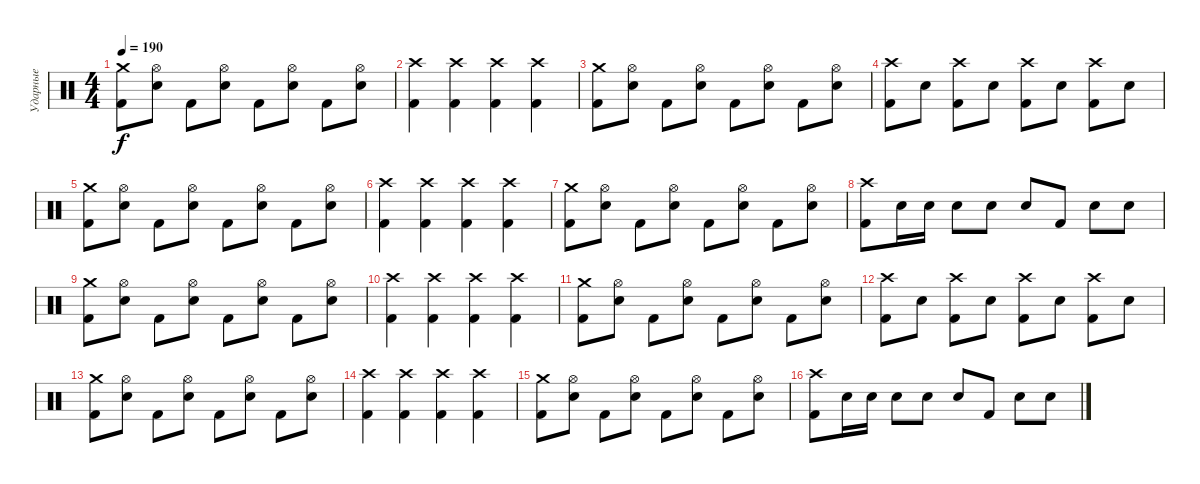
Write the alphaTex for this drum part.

\track ("Ударные" "Ударные") {instrument percussion}
\staff {score}
\articulation defaults
\ts (4 4)
\tempo 190
\clef neutral
\ks c
("Crash medium (hit)" "Kick (hit) 2").8{dy f} ("Hi-Hat (open)" "Electric Snare (hit)").8 "Kick (hit) 2".8 ("Hi-Hat (open)" "Electric Snare (hit)").8 "Kick (hit) 2".8 ("Hi-Hat (open)" "Electric Snare (hit)").8 "Kick (hit) 2".8 ("Hi-Hat (open)" "Electric Snare (hit)").8 |
("Crash high (hit)" "Kick (hit) 2").4 ("Crash high (hit)" "Kick (hit) 2").4 ("Crash high (hit)" "Kick (hit) 2").4 ("Crash high (hit)" "Kick (hit) 2").4 |
("Crash medium (hit)" "Kick (hit) 2").8 ("Hi-Hat (open)" "Electric Snare (hit)").8 "Kick (hit) 2".8 ("Hi-Hat (open)" "Electric Snare (hit)").8 "Kick (hit) 2".8 ("Hi-Hat (open)" "Electric Snare (hit)").8 "Kick (hit) 2".8 ("Hi-Hat (open)" "Electric Snare (hit)").8 |
("Crash high (hit)" "Kick (hit) 2").8 "Electric Snare (hit)".8 ("Crash high (hit)" "Kick (hit) 2").8 "Electric Snare (hit)".8 ("Crash high (hit)" "Kick (hit) 2").8 "Electric Snare (hit)".8 ("Crash high (hit)" "Kick (hit) 2").8 "Electric Snare (hit)".8 |
("Crash medium (hit)" "Kick (hit) 2").8 ("Hi-Hat (open)" "Electric Snare (hit)").8 "Kick (hit) 2".8 ("Hi-Hat (open)" "Electric Snare (hit)").8 "Kick (hit) 2".8 ("Hi-Hat (open)" "Electric Snare (hit)").8 "Kick (hit) 2".8 ("Hi-Hat (open)" "Electric Snare (hit)").8 |
("Crash high (hit)" "Kick (hit) 2").4 ("Crash high (hit)" "Kick (hit) 2").4 ("Crash high (hit)" "Kick (hit) 2").4 ("Crash high (hit)" "Kick (hit) 2").4 |
("Crash medium (hit)" "Kick (hit) 2").8 ("Hi-Hat (open)" "Electric Snare (hit)").8 "Kick (hit) 2".8 ("Hi-Hat (open)" "Electric Snare (hit)").8 "Kick (hit) 2".8 ("Hi-Hat (open)" "Electric Snare (hit)").8 "Kick (hit) 2".8 ("Hi-Hat (open)" "Electric Snare (hit)").8 |
("Crash high (hit)" "Kick (hit) 2").8 "Electric Snare (hit)".16 "Electric Snare (hit)".16 "Electric Snare (hit)".8 "Electric Snare (hit)".8 "Electric Snare (hit)".8 "Kick (hit) 2".8 "Electric Snare (hit)".8 "Electric Snare (hit)".8 |
("Crash medium (hit)" "Kick (hit) 2").8 ("Hi-Hat (open)" "Electric Snare (hit)").8 "Kick (hit) 2".8 ("Hi-Hat (open)" "Electric Snare (hit)").8 "Kick (hit) 2".8 ("Hi-Hat (open)" "Electric Snare (hit)").8 "Kick (hit) 2".8 ("Hi-Hat (open)" "Electric Snare (hit)").8 |
("Crash high (hit)" "Kick (hit) 2").4 ("Crash high (hit)" "Kick (hit) 2").4 ("Crash high (hit)" "Kick (hit) 2").4 ("Crash high (hit)" "Kick (hit) 2").4 |
("Crash medium (hit)" "Kick (hit) 2").8 ("Hi-Hat (open)" "Electric Snare (hit)").8 "Kick (hit) 2".8 ("Hi-Hat (open)" "Electric Snare (hit)").8 "Kick (hit) 2".8 ("Hi-Hat (open)" "Electric Snare (hit)").8 "Kick (hit) 2".8 ("Hi-Hat (open)" "Electric Snare (hit)").8 |
("Crash high (hit)" "Kick (hit) 2").8 "Electric Snare (hit)".8 ("Crash high (hit)" "Kick (hit) 2").8 "Electric Snare (hit)".8 ("Crash high (hit)" "Kick (hit) 2").8 "Electric Snare (hit)".8 ("Crash high (hit)" "Kick (hit) 2").8 "Electric Snare (hit)".8 |
("Crash medium (hit)" "Kick (hit) 2").8 ("Hi-Hat (open)" "Electric Snare (hit)").8 "Kick (hit) 2".8 ("Hi-Hat (open)" "Electric Snare (hit)").8 "Kick (hit) 2".8 ("Hi-Hat (open)" "Electric Snare (hit)").8 "Kick (hit) 2".8 ("Hi-Hat (open)" "Electric Snare (hit)").8 |
("Crash high (hit)" "Kick (hit) 2").4 ("Crash high (hit)" "Kick (hit) 2").4 ("Crash high (hit)" "Kick (hit) 2").4 ("Crash high (hit)" "Kick (hit) 2").4 |
("Crash medium (hit)" "Kick (hit) 2").8 ("Hi-Hat (open)" "Electric Snare (hit)").8 "Kick (hit) 2".8 ("Hi-Hat (open)" "Electric Snare (hit)").8 "Kick (hit) 2".8 ("Hi-Hat (open)" "Electric Snare (hit)").8 "Kick (hit) 2".8 ("Hi-Hat (open)" "Electric Snare (hit)").8 |
("Crash high (hit)" "Kick (hit) 2").8 "Electric Snare (hit)".16 "Electric Snare (hit)".16 "Electric Snare (hit)".8 "Electric Snare (hit)".8 "Electric Snare (hit)".8 "Kick (hit) 2".8 "Electric Snare (hit)".8 "Electric Snare (hit)".8
